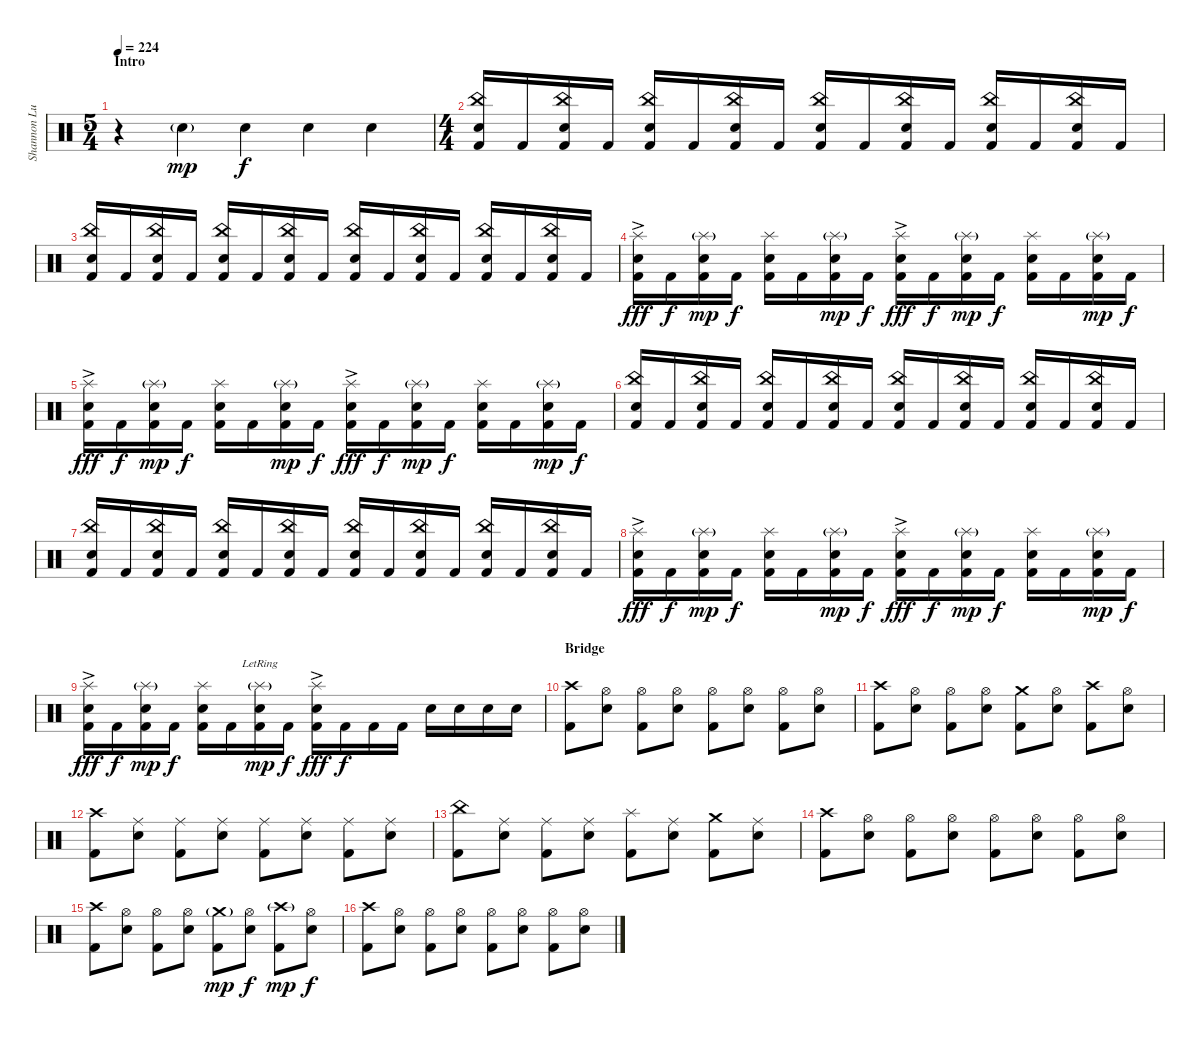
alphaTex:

\track ("Shannon Lucas (Drums)" "Shannon Lu") {instrument percussion}
\staff {score}
\articulation defaults
\ts (5 4)
\section ("" "Intro")
\tempo 224
\clef neutral
\ks c
r.4{dy mp} "Snare (hit) 2"{g}.4 "Snare (hit) 2".4{dy f} "Snare (hit) 2".4 "Snare (hit) 2".4 |
\ts (4 4)
("China (hit)" "Snare (hit) 2" "Kick (hit) 2").16{balance 4} "Kick (hit) 2".16 ("China (hit)" "Snare (hit) 2" "Kick (hit) 2").16 "Kick (hit) 2".16 ("China (hit)" "Snare (hit) 2" "Kick (hit) 2").16 "Kick (hit) 2".16 ("China (hit)" "Snare (hit) 2" "Kick (hit) 2").16 "Kick (hit) 2".16 ("China (hit)" "Snare (hit) 2" "Kick (hit) 2").16 "Kick (hit) 2".16 ("China (hit)" "Snare (hit) 2" "Kick (hit) 2").16 "Kick (hit) 2".16 ("China (hit)" "Snare (hit) 2" "Kick (hit) 2").16 "Kick (hit) 2".16 ("China (hit)" "Snare (hit) 2" "Kick (hit) 2").16 "Kick (hit) 2".16 |
("China (hit)" "Snare (hit) 2" "Kick (hit) 2").16 "Kick (hit) 2".16 ("China (hit)" "Snare (hit) 2" "Kick (hit) 2").16 "Kick (hit) 2".16 ("China (hit)" "Snare (hit) 2" "Kick (hit) 2").16 "Kick (hit) 2".16 ("China (hit)" "Snare (hit) 2" "Kick (hit) 2").16 "Kick (hit) 2".16 ("China (hit)" "Snare (hit) 2" "Kick (hit) 2").16 "Kick (hit) 2".16 ("China (hit)" "Snare (hit) 2" "Kick (hit) 2").16 "Kick (hit) 2".16 ("China (hit)" "Snare (hit) 2" "Kick (hit) 2").16 "Kick (hit) 2".16 ("China (hit)" "Snare (hit) 2" "Kick (hit) 2").16 "Kick (hit) 2".16 |
("Splash (hit)"{ac} "Snare (hit) 2" "Kick (hit) 2").16{dy fff balance 12} "Kick (hit) 2".16{dy f} ("Splash (hit)"{g} "Snare (hit) 2" "Kick (hit) 2").16{dy mp} "Kick (hit) 2".16{dy f} ("Splash (hit)" "Snare (hit) 2" "Kick (hit) 2").16 "Kick (hit) 2".16 ("Splash (hit)"{g} "Snare (hit) 2" "Kick (hit) 2").16{dy mp} "Kick (hit) 2".16{dy f} ("Splash (hit)"{ac} "Snare (hit) 2" "Kick (hit) 2").16{dy fff} "Kick (hit) 2".16{dy f} ("Splash (hit)"{g} "Snare (hit) 2" "Kick (hit) 2").16{dy mp} "Kick (hit) 2".16{dy f} ("Splash (hit)" "Snare (hit) 2" "Kick (hit) 2").16 "Kick (hit) 2".16 ("Splash (hit)"{g} "Snare (hit) 2" "Kick (hit) 2").16{dy mp} "Kick (hit) 2".16{dy f} |
("Splash (hit)"{ac} "Snare (hit) 2" "Kick (hit) 2").16{dy fff} "Kick (hit) 2".16{dy f} ("Splash (hit)"{g} "Snare (hit) 2" "Kick (hit) 2").16{dy mp} "Kick (hit) 2".16{dy f} ("Splash (hit)" "Snare (hit) 2" "Kick (hit) 2").16 "Kick (hit) 2".16 ("Splash (hit)"{g} "Snare (hit) 2" "Kick (hit) 2").16{dy mp} "Kick (hit) 2".16{dy f} ("Splash (hit)"{ac} "Snare (hit) 2" "Kick (hit) 2").16{dy fff} "Kick (hit) 2".16{dy f} ("Splash (hit)"{g} "Snare (hit) 2" "Kick (hit) 2").16{dy mp} "Kick (hit) 2".16{dy f} ("Splash (hit)" "Snare (hit) 2" "Kick (hit) 2").16 "Kick (hit) 2".16 ("Splash (hit)"{g} "Snare (hit) 2" "Kick (hit) 2").16{dy mp} "Kick (hit) 2".16{dy f} |
("China (hit)" "Snare (hit) 2" "Kick (hit) 2").16{balance 4} "Kick (hit) 2".16 ("China (hit)" "Snare (hit) 2" "Kick (hit) 2").16 "Kick (hit) 2".16 ("China (hit)" "Snare (hit) 2" "Kick (hit) 2").16 "Kick (hit) 2".16 ("China (hit)" "Snare (hit) 2" "Kick (hit) 2").16 "Kick (hit) 2".16 ("China (hit)" "Snare (hit) 2" "Kick (hit) 2").16 "Kick (hit) 2".16 ("China (hit)" "Snare (hit) 2" "Kick (hit) 2").16 "Kick (hit) 2".16 ("China (hit)" "Snare (hit) 2" "Kick (hit) 2").16 "Kick (hit) 2".16 ("China (hit)" "Snare (hit) 2" "Kick (hit) 2").16 "Kick (hit) 2".16 |
("China (hit)" "Snare (hit) 2" "Kick (hit) 2").16 "Kick (hit) 2".16 ("China (hit)" "Snare (hit) 2" "Kick (hit) 2").16 "Kick (hit) 2".16 ("China (hit)" "Snare (hit) 2" "Kick (hit) 2").16 "Kick (hit) 2".16 ("China (hit)" "Snare (hit) 2" "Kick (hit) 2").16 "Kick (hit) 2".16 ("China (hit)" "Snare (hit) 2" "Kick (hit) 2").16 "Kick (hit) 2".16 ("China (hit)" "Snare (hit) 2" "Kick (hit) 2").16 "Kick (hit) 2".16 ("China (hit)" "Snare (hit) 2" "Kick (hit) 2").16 "Kick (hit) 2".16 ("China (hit)" "Snare (hit) 2" "Kick (hit) 2").16 "Kick (hit) 2".16 |
("Splash (hit)"{ac} "Snare (hit) 2" "Kick (hit) 2").16{dy fff balance 12} "Kick (hit) 2".16{dy f} ("Splash (hit)"{g} "Snare (hit) 2" "Kick (hit) 2").16{dy mp} "Kick (hit) 2".16{dy f} ("Splash (hit)" "Snare (hit) 2" "Kick (hit) 2").16 "Kick (hit) 2".16 ("Splash (hit)"{g} "Snare (hit) 2" "Kick (hit) 2").16{dy mp} "Kick (hit) 2".16{dy f} ("Splash (hit)"{ac} "Snare (hit) 2" "Kick (hit) 2").16{dy fff} "Kick (hit) 2".16{dy f} ("Splash (hit)"{g} "Snare (hit) 2" "Kick (hit) 2").16{dy mp} "Kick (hit) 2".16{dy f} ("Splash (hit)" "Snare (hit) 2" "Kick (hit) 2").16 "Kick (hit) 2".16 ("Splash (hit)"{g} "Snare (hit) 2" "Kick (hit) 2").16{dy mp} "Kick (hit) 2".16{dy f} |
("Splash (hit)"{ac} "Snare (hit) 2" "Kick (hit) 2").16{dy fff} "Kick (hit) 2".16{dy f} ("Splash (hit)"{g} "Snare (hit) 2" "Kick (hit) 2").16{dy mp} "Kick (hit) 2".16{dy f} ("Splash (hit)" "Snare (hit) 2" "Kick (hit) 2").16 "Kick (hit) 2".16 ("Splash (hit)"{g lr} "Snare (hit) 2" "Kick (hit) 2").16{dy mp} "Kick (hit) 2".16{dy f} ("Splash (hit)"{ac} "Snare (hit) 2" "Kick (hit) 2").16{dy fff} "Kick (hit) 2".16{dy f} "Kick (hit) 2".16 "Kick (hit) 2".16 "Snare (hit) 2".16 "Snare (hit) 2".16 "Snare (hit) 2".16 "Snare (hit) 2".16 |
\section ("" "Bridge")
("Crash high (hit)" "Kick (hit) 2").8{balance 8} ("Hi-Hat (open)" "Snare (hit) 2").8 ("Hi-Hat (open)" "Kick (hit) 2").8 ("Hi-Hat (open)" "Snare (hit) 2").8 ("Hi-Hat (open)" "Kick (hit) 2").8 ("Hi-Hat (open)" "Snare (hit) 2").8 ("Hi-Hat (open)" "Kick (hit) 2").8 ("Hi-Hat (open)" "Snare (hit) 2").8 |
("Crash high (hit)" "Kick (hit) 2").8 ("Hi-Hat (open)" "Snare (hit) 2").8 ("Hi-Hat (open)" "Kick (hit) 2").8 ("Hi-Hat (open)" "Snare (hit) 2").8 ("Crash medium (hit)" "Kick (hit) 2").8 ("Hi-Hat (open)" "Snare (hit) 2").8 ("Crash high (hit)" "Kick (hit) 2").8 ("Hi-Hat (open)" "Snare (hit) 2").8 |
("Crash high (hit)" "Kick (hit) 2").8 ("Ride (middle)" "Snare (hit) 2").8 ("Ride (middle)" "Kick (hit) 2").8 ("Ride (middle)" "Snare (hit) 2").8 ("Ride (middle)" "Kick (hit) 2").8 ("Ride (middle)" "Snare (hit) 2").8 ("Ride (middle)" "Kick (hit) 2").8 ("Ride (middle)" "Snare (hit) 2").8 |
("China (hit)" "Kick (hit) 2").8 ("Ride (middle)" "Snare (hit) 2").8 ("Ride (middle)" "Kick (hit) 2").8 ("Ride (middle)" "Snare (hit) 2").8 ("Splash (hit)" "Kick (hit) 2").8 ("Ride (middle)" "Snare (hit) 2").8 ("Crash medium (hit)" "Kick (hit) 2").8 ("Ride (middle)" "Snare (hit) 2").8 |
("Crash high (hit)" "Kick (hit) 2").8{balance 8} ("Hi-Hat (open)" "Snare (hit) 2").8 ("Hi-Hat (open)" "Kick (hit) 2").8 ("Hi-Hat (open)" "Snare (hit) 2").8 ("Hi-Hat (open)" "Kick (hit) 2").8 ("Hi-Hat (open)" "Snare (hit) 2").8 ("Hi-Hat (open)" "Kick (hit) 2").8 ("Hi-Hat (open)" "Snare (hit) 2").8 |
("Crash high (hit)" "Kick (hit) 2").8 ("Hi-Hat (open)" "Snare (hit) 2").8 ("Hi-Hat (open)" "Kick (hit) 2").8 ("Hi-Hat (open)" "Snare (hit) 2").8 ("Crash medium (hit)"{g} "Kick (hit) 2").8{dy mp} ("Hi-Hat (open)" "Snare (hit) 2").8{dy f} ("Crash high (hit)"{g} "Kick (hit) 2").8{dy mp} ("Hi-Hat (open)" "Snare (hit) 2").8{dy f} |
("Crash high (hit)" "Kick (hit) 2").8{balance 8} ("Hi-Hat (open)" "Snare (hit) 2").8 ("Hi-Hat (open)" "Kick (hit) 2").8 ("Hi-Hat (open)" "Snare (hit) 2").8 ("Hi-Hat (open)" "Kick (hit) 2").8 ("Hi-Hat (open)" "Snare (hit) 2").8 ("Hi-Hat (open)" "Kick (hit) 2").8 ("Hi-Hat (open)" "Snare (hit) 2").8
